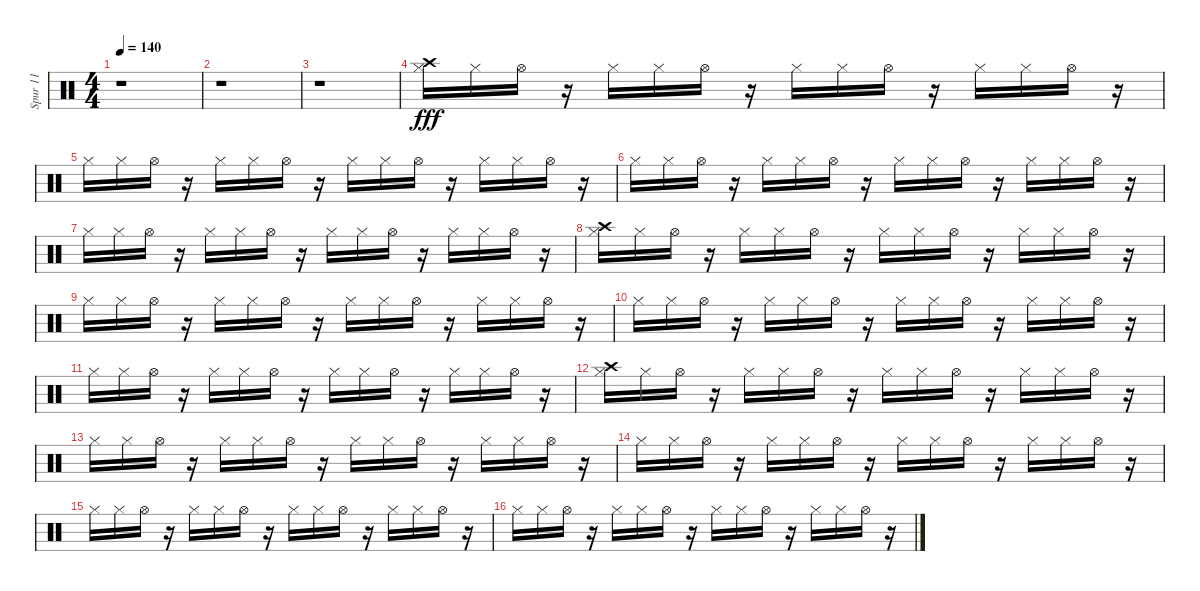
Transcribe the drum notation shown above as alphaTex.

\track ("Spur 11" "Spur 11") {instrument percussion}
\staff {score}
\articulation defaults
\ts (4 4)
\tempo 140
\clef neutral
\ks c
r.1{dy fff} |
r.1 |
r.1 |
("Hi-Hat (closed)" "Crash high (hit)").16 "Hi-Hat (closed)".16 "Hi-Hat (open)".16 r.16 "Hi-Hat (closed)".16 "Hi-Hat (closed)".16 "Hi-Hat (open)".16 r.16 "Hi-Hat (closed)".16 "Hi-Hat (closed)".16 "Hi-Hat (open)".16 r.16 "Hi-Hat (closed)".16 "Hi-Hat (closed)".16 "Hi-Hat (open)".16 r.16 |
"Hi-Hat (closed)".16 "Hi-Hat (closed)".16 "Hi-Hat (open)".16 r.16 "Hi-Hat (closed)".16 "Hi-Hat (closed)".16 "Hi-Hat (open)".16 r.16 "Hi-Hat (closed)".16 "Hi-Hat (closed)".16 "Hi-Hat (open)".16 r.16 "Hi-Hat (closed)".16 "Hi-Hat (closed)".16 "Hi-Hat (open)".16 r.16 |
"Hi-Hat (closed)".16 "Hi-Hat (closed)".16 "Hi-Hat (open)".16 r.16 "Hi-Hat (closed)".16 "Hi-Hat (closed)".16 "Hi-Hat (open)".16 r.16 "Hi-Hat (closed)".16 "Hi-Hat (closed)".16 "Hi-Hat (open)".16 r.16 "Hi-Hat (closed)".16 "Hi-Hat (closed)".16 "Hi-Hat (open)".16 r.16 |
"Hi-Hat (closed)".16 "Hi-Hat (closed)".16 "Hi-Hat (open)".16 r.16 "Hi-Hat (closed)".16 "Hi-Hat (closed)".16 "Hi-Hat (open)".16 r.16 "Hi-Hat (closed)".16 "Hi-Hat (closed)".16 "Hi-Hat (open)".16 r.16 "Hi-Hat (closed)".16 "Hi-Hat (closed)".16 "Hi-Hat (open)".16 r.16 |
("Hi-Hat (closed)" "Crash high (hit)").16 "Hi-Hat (closed)".16 "Hi-Hat (open)".16 r.16 "Hi-Hat (closed)".16 "Hi-Hat (closed)".16 "Hi-Hat (open)".16 r.16 "Hi-Hat (closed)".16 "Hi-Hat (closed)".16 "Hi-Hat (open)".16 r.16 "Hi-Hat (closed)".16 "Hi-Hat (closed)".16 "Hi-Hat (open)".16 r.16 |
"Hi-Hat (closed)".16 "Hi-Hat (closed)".16 "Hi-Hat (open)".16 r.16 "Hi-Hat (closed)".16 "Hi-Hat (closed)".16 "Hi-Hat (open)".16 r.16 "Hi-Hat (closed)".16 "Hi-Hat (closed)".16 "Hi-Hat (open)".16 r.16 "Hi-Hat (closed)".16 "Hi-Hat (closed)".16 "Hi-Hat (open)".16 r.16 |
"Hi-Hat (closed)".16 "Hi-Hat (closed)".16 "Hi-Hat (open)".16 r.16 "Hi-Hat (closed)".16 "Hi-Hat (closed)".16 "Hi-Hat (open)".16 r.16 "Hi-Hat (closed)".16 "Hi-Hat (closed)".16 "Hi-Hat (open)".16 r.16 "Hi-Hat (closed)".16 "Hi-Hat (closed)".16 "Hi-Hat (open)".16 r.16 |
"Hi-Hat (closed)".16 "Hi-Hat (closed)".16 "Hi-Hat (open)".16 r.16 "Hi-Hat (closed)".16 "Hi-Hat (closed)".16 "Hi-Hat (open)".16 r.16 "Hi-Hat (closed)".16 "Hi-Hat (closed)".16 "Hi-Hat (open)".16 r.16 "Hi-Hat (closed)".16 "Hi-Hat (closed)".16 "Hi-Hat (open)".16 r.16 |
("Hi-Hat (closed)" "Crash high (hit)").16 "Hi-Hat (closed)".16 "Hi-Hat (open)".16 r.16 "Hi-Hat (closed)".16 "Hi-Hat (closed)".16 "Hi-Hat (open)".16 r.16 "Hi-Hat (closed)".16 "Hi-Hat (closed)".16 "Hi-Hat (open)".16 r.16 "Hi-Hat (closed)".16 "Hi-Hat (closed)".16 "Hi-Hat (open)".16 r.16 |
"Hi-Hat (closed)".16 "Hi-Hat (closed)".16 "Hi-Hat (open)".16 r.16 "Hi-Hat (closed)".16 "Hi-Hat (closed)".16 "Hi-Hat (open)".16 r.16 "Hi-Hat (closed)".16 "Hi-Hat (closed)".16 "Hi-Hat (open)".16 r.16 "Hi-Hat (closed)".16 "Hi-Hat (closed)".16 "Hi-Hat (open)".16 r.16 |
"Hi-Hat (closed)".16 "Hi-Hat (closed)".16 "Hi-Hat (open)".16 r.16 "Hi-Hat (closed)".16 "Hi-Hat (closed)".16 "Hi-Hat (open)".16 r.16 "Hi-Hat (closed)".16 "Hi-Hat (closed)".16 "Hi-Hat (open)".16 r.16 "Hi-Hat (closed)".16 "Hi-Hat (closed)".16 "Hi-Hat (open)".16 r.16 |
"Hi-Hat (closed)".16 "Hi-Hat (closed)".16 "Hi-Hat (open)".16 r.16 "Hi-Hat (closed)".16 "Hi-Hat (closed)".16 "Hi-Hat (open)".16 r.16 "Hi-Hat (closed)".16 "Hi-Hat (closed)".16 "Hi-Hat (open)".16 r.16 "Hi-Hat (closed)".16 "Hi-Hat (closed)".16 "Hi-Hat (open)".16 r.16 |
"Hi-Hat (closed)".16 "Hi-Hat (closed)".16 "Hi-Hat (open)".16 r.16 "Hi-Hat (closed)".16 "Hi-Hat (closed)".16 "Hi-Hat (open)".16 r.16 "Hi-Hat (closed)".16 "Hi-Hat (closed)".16 "Hi-Hat (open)".16 r.16 "Hi-Hat (closed)".16 "Hi-Hat (closed)".16 "Hi-Hat (open)".16 r.16
